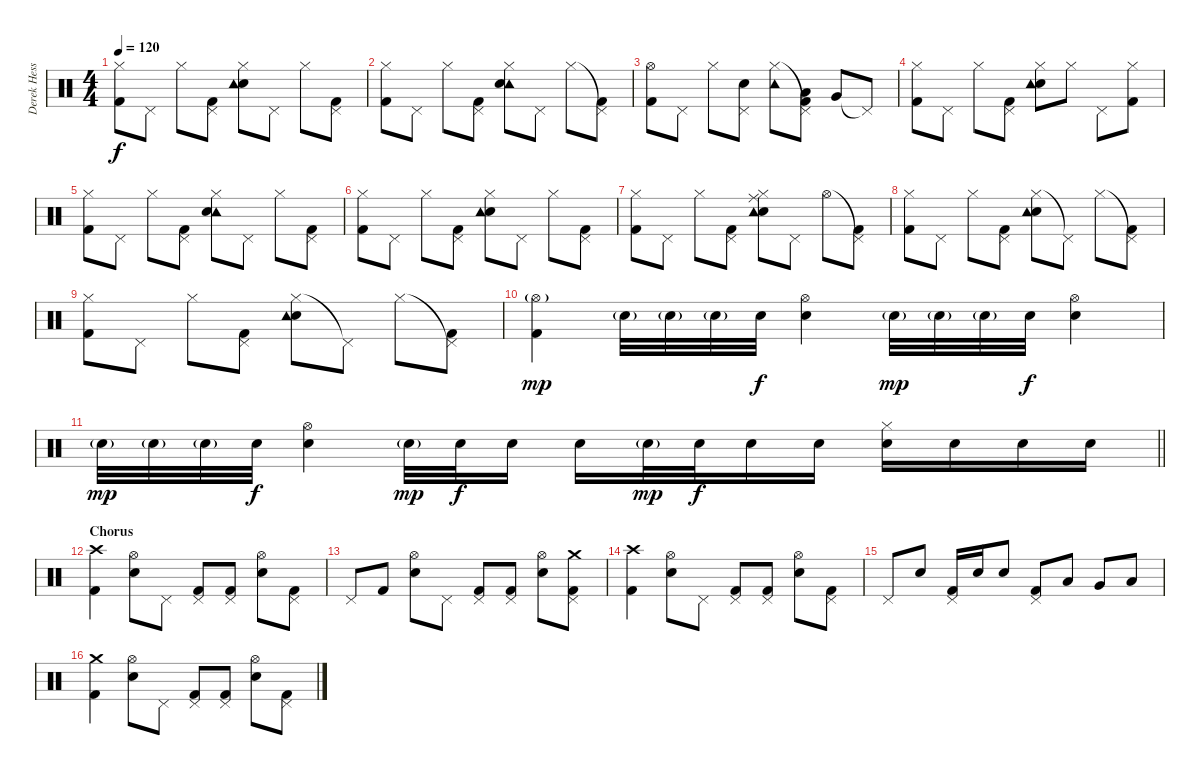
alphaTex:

\track ("Derek Hess (Drums and Percussion)" "Derek Hess") {instrument percussion}
\staff {score}
\articulation defaults
\ts (4 4)
\tempo 120
\clef neutral
\ks c
("Hi-Hat (closed)" "Kick (hit) 2").8{dy f} "Pedal Hi-Hat (hit)".8 "Hi-Hat (closed)".8 ("Pedal Hi-Hat (hit)" "Kick (hit) 2").8 ("Hi-Hat (closed)" "Snare (hit) 2" "Tambourine (hit)").8 "Pedal Hi-Hat (hit)".8 "Hi-Hat (closed)".8 ("Pedal Hi-Hat (hit)" "Kick (hit) 2").8 |
("Hi-Hat (closed)" "Kick (hit) 2").8 "Pedal Hi-Hat (hit)".8 "Hi-Hat (closed)".8 ("Pedal Hi-Hat (hit)" "Kick (hit) 2").8 ("Hi-Hat (closed)" "Tambourine (hit)" "Snare (hit) 2").8 "Pedal Hi-Hat (hit)".8 "Hi-Hat (closed)".8 ("Pedal Hi-Hat (hit)"{t} "Kick (hit) 2").8 |
("Hi-Hat (open)" "Kick (hit) 2").8 "Pedal Hi-Hat (hit)".8 "Hi-Hat (closed)".8 ("Pedal Hi-Hat (hit)" "Snare (hit) 2").8 ("Hi-Hat (closed)" "Tambourine (hit)").8 ("Pedal Hi-Hat (hit)"{t} "Low Tom (hit)" "Kick (hit) 2").8 "Very Low Tom (hit)".8 "Pedal Hi-Hat (hit)"{t}.8 |
("Hi-Hat (closed)" "Kick (hit) 2").8 "Pedal Hi-Hat (hit)".8 "Hi-Hat (closed)".8 ("Pedal Hi-Hat (hit)" "Kick (hit) 2").8 ("Hi-Hat (closed)" "Electric Snare (hit)" "Tambourine (hit)").8 "Hi-Hat (closed)".8 "Pedal Hi-Hat (hit)".8 ("Hi-Hat (closed)" "Kick (hit) 2").8 |
("Hi-Hat (closed)" "Kick (hit) 2").8 "Pedal Hi-Hat (hit)".8 "Hi-Hat (closed)".8 ("Pedal Hi-Hat (hit)" "Kick (hit) 2").8 ("Hi-Hat (closed)" "Tambourine (hit)" "Snare (hit) 2").8 "Pedal Hi-Hat (hit)".8 "Hi-Hat (closed)".8 ("Pedal Hi-Hat (hit)" "Kick (hit) 2").8 |
("Hi-Hat (closed)" "Kick (hit) 2").8 "Pedal Hi-Hat (hit)".8 "Hi-Hat (closed)".8 ("Pedal Hi-Hat (hit)" "Kick (hit) 2").8 ("Hi-Hat (closed)" "Snare (hit) 2" "Tambourine (hit)").8 "Pedal Hi-Hat (hit)".8 "Hi-Hat (closed)".8 ("Pedal Hi-Hat (hit)" "Kick (hit) 2").8 |
("Hi-Hat (closed)" "Kick (hit) 2").8 "Pedal Hi-Hat (hit)".8 "Hi-Hat (closed)".8 ("Pedal Hi-Hat (hit)" "Kick (hit) 2").8 ("Hi-Hat (closed)" "Snare (hit) 2" "Tambourine (hit)" "Ride (middle)").8 "Pedal Hi-Hat (hit)".8 "Hi-Hat (open)".8 ("Pedal Hi-Hat (hit)"{t} "Kick (hit) 2").8 |
("Hi-Hat (closed)" "Kick (hit) 2").8 "Pedal Hi-Hat (hit)".8 "Hi-Hat (closed)".8 ("Pedal Hi-Hat (hit)" "Kick (hit) 2").8 ("Hi-Hat (closed)" "Snare (hit) 2" "Tambourine (hit)").8 "Pedal Hi-Hat (hit)"{t}.8 "Hi-Hat (closed)".8 ("Pedal Hi-Hat (hit)"{t} "Kick (hit) 2").8 |
("Hi-Hat (closed)" "Kick (hit) 2").8 "Pedal Hi-Hat (hit)".8 "Hi-Hat (closed)".8 ("Pedal Hi-Hat (hit)" "Kick (hit) 2").8 ("Hi-Hat (closed)" "Snare (hit) 2" "Tambourine (hit)").8 "Pedal Hi-Hat (hit)"{t}.8 "Hi-Hat (closed)".8 ("Pedal Hi-Hat (hit)"{t} "Kick (hit) 2").8 |
("Hi-Hat (open)"{g} "Kick (hit) 2").4{dy mp} "Snare (hit) 2"{g}.32 "Snare (hit) 2"{g}.32 "Snare (hit) 2"{g}.32 "Snare (hit) 2".32{dy f} ("Snare (hit) 2" "Hi-Hat (open)").4 "Snare (hit) 2"{g}.32{dy mp} "Snare (hit) 2"{g}.32 "Snare (hit) 2"{g}.32 "Snare (hit) 2".32{dy f} ("Snare (hit) 2" "Hi-Hat (open)").4 |
\barLineRight lightlight "Snare (hit) 2"{g}.32{dy mp} "Snare (hit) 2"{g}.32 "Snare (hit) 2"{g}.32 "Snare (hit) 2".32{dy f}
("Snare (hit) 2" "Hi-Hat (open)").4 "Snare (hit) 2"{g}.32{dy mp} "Snare (hit) 2".32{dy f} "Snare (hit) 2".16 "Snare (hit) 2".16 "Snare (hit) 2"{g}.32{dy mp} "Snare (hit) 2".32{dy f} "Snare (hit) 2".16 "Snare (hit) 2".16 ("Snare (hit) 2" "Hi-Hat (closed)").16 "Snare (hit) 2".16 "Snare (hit) 2".16 "Snare (hit) 2".16 |
\section ("" "Chorus")
("Crash high (hit)" "Kick (hit) 2").4 ("Snare (hit) 2" "Hi-Hat (open)").8 "Pedal Hi-Hat (hit)".8 ("Pedal Hi-Hat (hit)" "Kick (hit) 2").8 ("Pedal Hi-Hat (hit)" "Kick (hit) 2").8 ("Snare (hit) 2" "Hi-Hat (open)").8 ("Pedal Hi-Hat (hit)" "Kick (hit) 2").8 |
"Pedal Hi-Hat (hit)".8 "Kick (hit) 2".8 ("Snare (hit) 2" "Hi-Hat (open)").8 "Pedal Hi-Hat (hit)".8 ("Pedal Hi-Hat (hit)" "Kick (hit) 2").8 ("Pedal Hi-Hat (hit)" "Kick (hit) 2").8 ("Snare (hit) 2" "Hi-Hat (open)").8 ("Crash medium (hit)" "Pedal Hi-Hat (hit)" "Kick (hit) 2").8 |
("Crash high (hit)" "Kick (hit) 2").4 ("Snare (hit) 2" "Hi-Hat (open)").8 "Pedal Hi-Hat (hit)".8 ("Pedal Hi-Hat (hit)" "Kick (hit) 2").8 ("Pedal Hi-Hat (hit)" "Kick (hit) 2").8 ("Snare (hit) 2" "Hi-Hat (open)").8 ("Pedal Hi-Hat (hit)" "Kick (hit) 2").8 |
"Pedal Hi-Hat (hit)".8 "Snare (hit) 2".8 ("Pedal Hi-Hat (hit)" "Kick (hit) 2").16 "Snare (hit) 2".16 "Snare (hit) 2".8 ("Pedal Hi-Hat (hit)" "Kick (hit) 2").8 "Low Tom (hit)".8 "Very Low Tom (hit)".8 "Low Floor Tom (hit)".8 |
("Crash medium (hit)" "Kick (hit) 2").4 ("Snare (hit) 2" "Hi-Hat (open)").8 "Pedal Hi-Hat (hit)".8 ("Pedal Hi-Hat (hit)" "Kick (hit) 2").8 ("Pedal Hi-Hat (hit)" "Kick (hit) 2").8 ("Snare (hit) 2" "Hi-Hat (open)").8 ("Pedal Hi-Hat (hit)" "Kick (hit) 2").8
